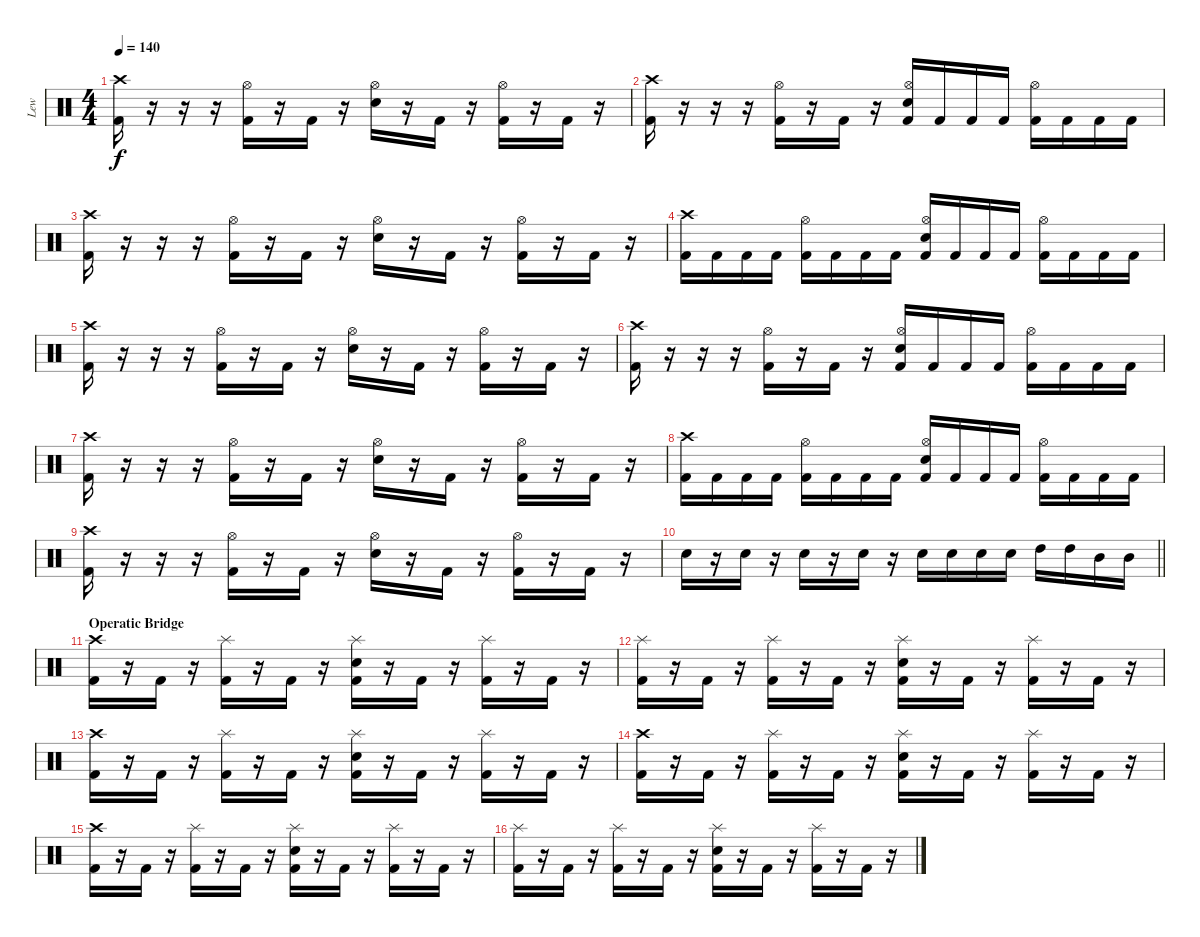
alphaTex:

\track ("Lew" "Lew") {instrument percussion}
\staff {score}
\articulation defaults
\ts (4 4)
\tempo 140
\clef neutral
\ks c
("Crash high (hit)" "Kick (hit) 2").16{dy f} r.16 r.16 r.16 ("Hi-Hat (open)" "Kick (hit) 2").16 r.16 "Kick (hit) 2".16 r.16 ("Hi-Hat (open)" "Electric Snare (hit)").16 r.16 "Kick (hit) 2".16 r.16 ("Hi-Hat (open)" "Kick (hit) 2").16 r.16 "Kick (hit) 2".16 r.16 |
("Crash high (hit)" "Kick (hit) 2").16 r.16 r.16 r.16 ("Hi-Hat (open)" "Kick (hit) 2").16 r.16 "Kick (hit) 2".16 r.16 ("Hi-Hat (open)" "Electric Snare (hit)" "Kick (hit) 2").16 "Kick (hit) 2".16 "Kick (hit) 2".16 "Kick (hit) 2".16 ("Hi-Hat (open)" "Kick (hit) 2").16 "Kick (hit) 2".16 "Kick (hit) 2".16 "Kick (hit) 2".16 |
("Crash high (hit)" "Kick (hit) 2").16 r.16 r.16 r.16 ("Hi-Hat (open)" "Kick (hit) 2").16 r.16 "Kick (hit) 2".16 r.16 ("Hi-Hat (open)" "Electric Snare (hit)").16 r.16 "Kick (hit) 2".16 r.16 ("Hi-Hat (open)" "Kick (hit) 2").16 r.16 "Kick (hit) 2".16 r.16 |
("Crash high (hit)" "Kick (hit) 2").16 "Kick (hit) 2".16 "Kick (hit) 2".16 "Kick (hit) 2".16 ("Hi-Hat (open)" "Kick (hit) 2").16 "Kick (hit) 2".16 "Kick (hit) 2".16 "Kick (hit) 2".16 ("Hi-Hat (open)" "Electric Snare (hit)" "Kick (hit) 2").16 "Kick (hit) 2".16 "Kick (hit) 2".16 "Kick (hit) 2".16 ("Hi-Hat (open)" "Kick (hit) 2").16 "Kick (hit) 2".16 "Kick (hit) 2".16 "Kick (hit) 2".16 |
("Crash high (hit)" "Kick (hit) 2").16 r.16 r.16 r.16 ("Hi-Hat (open)" "Kick (hit) 2").16 r.16 "Kick (hit) 2".16 r.16 ("Hi-Hat (open)" "Electric Snare (hit)").16 r.16 "Kick (hit) 2".16 r.16 ("Hi-Hat (open)" "Kick (hit) 2").16 r.16 "Kick (hit) 2".16 r.16 |
("Crash high (hit)" "Kick (hit) 2").16 r.16 r.16 r.16 ("Hi-Hat (open)" "Kick (hit) 2").16 r.16 "Kick (hit) 2".16 r.16 ("Hi-Hat (open)" "Electric Snare (hit)" "Kick (hit) 2").16 "Kick (hit) 2".16 "Kick (hit) 2".16 "Kick (hit) 2".16 ("Hi-Hat (open)" "Kick (hit) 2").16 "Kick (hit) 2".16 "Kick (hit) 2".16 "Kick (hit) 2".16 |
("Crash high (hit)" "Kick (hit) 2").16 r.16 r.16 r.16 ("Hi-Hat (open)" "Kick (hit) 2").16 r.16 "Kick (hit) 2".16 r.16 ("Hi-Hat (open)" "Electric Snare (hit)").16 r.16 "Kick (hit) 2".16 r.16 ("Hi-Hat (open)" "Kick (hit) 2").16 r.16 "Kick (hit) 2".16 r.16 |
("Crash high (hit)" "Kick (hit) 2").16 "Kick (hit) 2".16 "Kick (hit) 2".16 "Kick (hit) 2".16 ("Hi-Hat (open)" "Kick (hit) 2").16 "Kick (hit) 2".16 "Kick (hit) 2".16 "Kick (hit) 2".16 ("Hi-Hat (open)" "Electric Snare (hit)" "Kick (hit) 2").16 "Kick (hit) 2".16 "Kick (hit) 2".16 "Kick (hit) 2".16 ("Hi-Hat (open)" "Kick (hit) 2").16 "Kick (hit) 2".16 "Kick (hit) 2".16 "Kick (hit) 2".16 |
("Crash high (hit)" "Kick (hit) 2").16 r.16 r.16 r.16 ("Hi-Hat (open)" "Kick (hit) 2").16 r.16 "Kick (hit) 2".16 r.16 ("Hi-Hat (open)" "Electric Snare (hit)").16 r.16 "Kick (hit) 2".16 r.16 ("Hi-Hat (open)" "Kick (hit) 2").16 r.16 "Kick (hit) 2".16 r.16 |
\barLineRight lightlight "Electric Snare (hit)".16
r.16 "Electric Snare (hit)".16 r.16 "Electric Snare (hit)".16 r.16 "Electric Snare (hit)".16 r.16 "Electric Snare (hit)".16 "Electric Snare (hit)".16 "Electric Snare (hit)".16 "Electric Snare (hit)".16 "High Tom (hit)".16 "High Tom (hit)".16 "Mid Tom (hit)".16 "Mid Tom (hit)".16 |
\section ("" "Operatic Bridge")
("Crash high (hit)" "Kick (hit) 2").16{volume 13} r.16 "Kick (hit) 2".16 r.16 ("Splash (hit)" "Kick (hit) 2").16 r.16 "Kick (hit) 2".16 r.16 ("Splash (hit)" "Electric Snare (hit)" "Kick (hit) 2").16 r.16 "Kick (hit) 2".16 r.16 ("Splash (hit)" "Kick (hit) 2").16 r.16 "Kick (hit) 2".16 r.16 |
("Splash (hit)" "Kick (hit) 2").16 r.16 "Kick (hit) 2".16 r.16 ("Splash (hit)" "Kick (hit) 2").16 r.16 "Kick (hit) 2".16 r.16 ("Splash (hit)" "Electric Snare (hit)" "Kick (hit) 2").16 r.16 "Kick (hit) 2".16 r.16 ("Splash (hit)" "Kick (hit) 2").16 r.16 "Kick (hit) 2".16 r.16 |
("Crash high (hit)" "Kick (hit) 2").16 r.16 "Kick (hit) 2".16 r.16 ("Splash (hit)" "Kick (hit) 2").16 r.16 "Kick (hit) 2".16 r.16 ("Splash (hit)" "Electric Snare (hit)" "Kick (hit) 2").16 r.16 "Kick (hit) 2".16 r.16 ("Splash (hit)" "Kick (hit) 2").16 r.16 "Kick (hit) 2".16 r.16 |
("Crash high (hit)" "Kick (hit) 2").16 r.16 "Kick (hit) 2".16 r.16 ("Splash (hit)" "Kick (hit) 2").16 r.16 "Kick (hit) 2".16 r.16 ("Splash (hit)" "Electric Snare (hit)" "Kick (hit) 2").16 r.16 "Kick (hit) 2".16 r.16 ("Splash (hit)" "Kick (hit) 2").16 r.16 "Kick (hit) 2".16 r.16 |
("Crash high (hit)" "Kick (hit) 2").16 r.16 "Kick (hit) 2".16 r.16 ("Splash (hit)" "Kick (hit) 2").16 r.16 "Kick (hit) 2".16 r.16 ("Splash (hit)" "Electric Snare (hit)" "Kick (hit) 2").16 r.16 "Kick (hit) 2".16 r.16 ("Splash (hit)" "Kick (hit) 2").16 r.16 "Kick (hit) 2".16 r.16 |
("Splash (hit)" "Kick (hit) 2").16 r.16 "Kick (hit) 2".16 r.16 ("Splash (hit)" "Kick (hit) 2").16 r.16 "Kick (hit) 2".16 r.16 ("Splash (hit)" "Electric Snare (hit)" "Kick (hit) 2").16 r.16 "Kick (hit) 2".16 r.16 ("Splash (hit)" "Kick (hit) 2").16 r.16 "Kick (hit) 2".16 r.16
